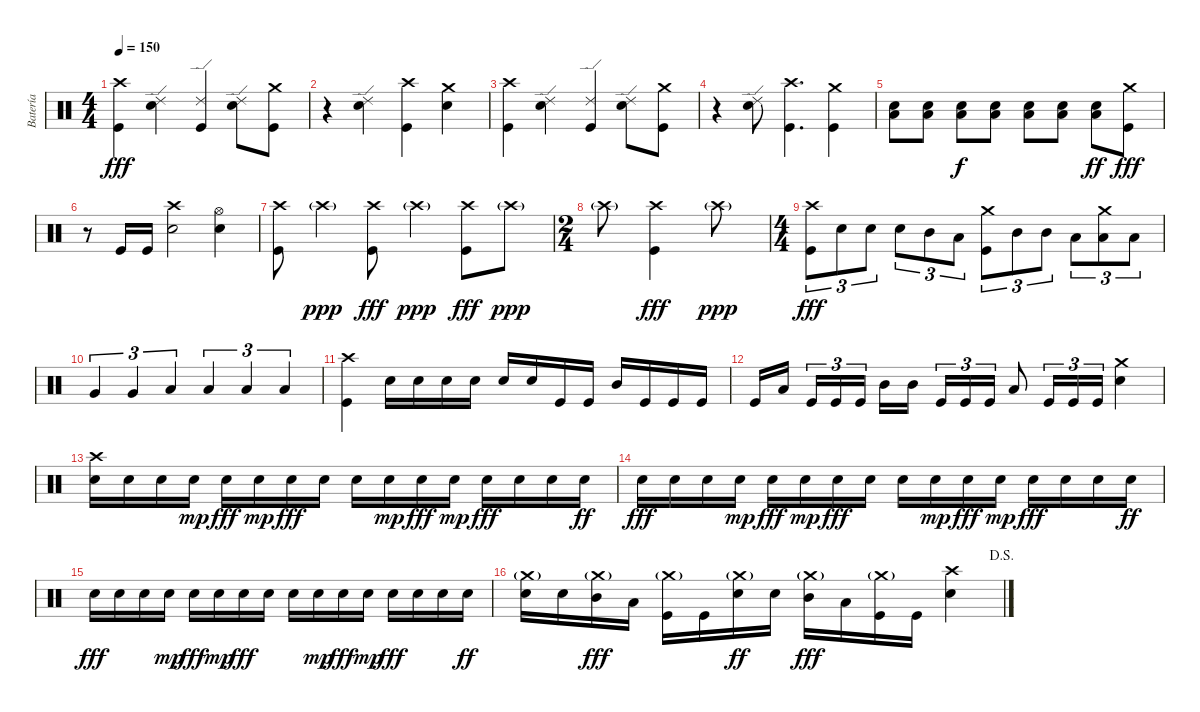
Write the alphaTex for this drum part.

\track ("Batería" "Batería") {instrument percussion}
\staff {score}
\articulation defaults
\ts (4 4)
\tempo 150
\clef neutral
\ks c
("Crash high (hit)" "Kick (hit)").4{dy fff} ("Ride (edge) 2" "Snare (hit) 2").4 ("Ride (edge) 2" "Kick (hit)").4 ("Ride (edge) 2" "Snare (hit) 2").8 ("Crash medium (hit)" "Kick (hit)").8 |
r.4 ("Ride (edge) 2" "Snare (hit) 2").4 ("Crash high (hit)" "Kick (hit)").4 ("Crash medium (hit)" "Snare (hit) 2").4 |
("Crash high (hit)" "Kick (hit)").4 ("Ride (edge) 2" "Snare (hit) 2").4 ("Ride (edge) 2" "Kick (hit)").4 ("Ride (edge) 2" "Snare (hit) 2").8 ("Crash medium (hit)" "Kick (hit)").8 |
r.4 ("Ride (edge) 2" "Snare (hit) 2").8 ("Crash high (hit)" "Kick (hit)").4{d} ("Crash medium (hit)" "Kick (hit)").4 |
("Low Floor Tom (hit)" "Snare (hit) 2").8 ("Low Floor Tom (hit)" "Snare (hit) 2").8 ("Low Floor Tom (hit)" "Snare (hit) 2").8{dy f} ("Low Floor Tom (hit)" "Snare (hit) 2").8 ("Low Floor Tom (hit)" "Snare (hit) 2").8 ("Low Floor Tom (hit)" "Snare (hit) 2").8 ("Low Floor Tom (hit)" "Snare (hit) 2").8{dy ff} ("Crash medium (hit)" "Kick (hit)").8{dy fff} |
r.8 "Kick (hit)".16 "Kick (hit)".16 ("Crash high (hit)" "Snare (hit) 2").2 ("Hi-Hat (open)" "Snare (hit) 2").4 |
("Crash high (hit)" "Kick (hit)").8 "Crash high (hit)"{g}.4{dy ppp} ("Crash high (hit)" "Kick (hit)").8{dy fff} "Crash high (hit)"{g}.4{dy ppp} ("Crash high (hit)" "Kick (hit)").8{dy fff} "Crash high (hit)"{g}.8{dy ppp} |
\ts (2 4)
"Crash high (hit)"{g}.8 ("Crash high (hit)" "Kick (hit)").4{dy fff} "Crash high (hit)"{g}.8{dy ppp} |
\ts (4 4)
("Crash high (hit)" "Kick (hit)").8{tu (3 2) dy fff} "Snare (hit) 2".8{tu (3 2)} "Snare (hit) 2".8{tu (3 2)} "Snare (hit) 2".8{tu (3 2)} "Mid Tom (hit)".8{tu (3 2)} "Low Tom (hit)".8{tu (3 2)} ("Crash medium (hit)" "Kick (hit)").8{tu (3 2)} "Mid Tom (hit)".8{tu (3 2)} "Mid Tom (hit)".8{tu (3 2)} "Low Tom (hit)".8{tu (3 2)} ("Crash medium (hit)" "Low Tom (hit)").8{tu (3 2)} "Low Tom (hit)".8{tu (3 2)} |
"Very Low Tom (hit)".4{tu (3 2)} "Very Low Tom (hit)".4{tu (3 2)} "Low Floor Tom (hit)".4{tu (3 2)} "Low Floor Tom (hit)".4{tu (3 2)} "Low Floor Tom (hit)".4{tu (3 2)} "Low Floor Tom (hit)".4{tu (3 2)} |
("Crash high (hit)" "Kick (hit)").4 "Snare (hit) 2".16 "Snare (hit) 2".16 "Snare (hit) 2".16 "Snare (hit) 2".16 "Snare (hit) 2".16 "Snare (hit) 2".16 "Kick (hit)".16 "Kick (hit)".16 "Mid Tom (hit)".16 "Kick (hit)".16 "Kick (hit)".16 "Kick (hit)".16 |
"Kick (hit)".16 "Low Tom (hit)".16{beam splitsecondary} "Kick (hit)".16{tu (3 2)} "Kick (hit)".16{tu (3 2)} "Kick (hit)".16{tu (3 2)} "Mid Tom (hit)".16 "Mid Tom (hit)".16{beam splitsecondary} "Kick (hit)".16{tu (3 2)} "Kick (hit)".16{tu (3 2)} "Kick (hit)".16{tu (3 2)} "Low Tom (hit)".8 "Kick (hit)".16{tu (3 2)} "Kick (hit)".16{tu (3 2)} "Kick (hit)".16{tu (3 2)} ("Crash medium (hit)" "Snare (hit) 2").4 |
("Crash high (hit)" "Snare (hit) 2").16 "Snare (hit) 2".16 "Snare (hit) 2".16 "Snare (hit) 2".16{dy mp} "Snare (hit) 2".16{dy fff} "Snare (hit) 2".16{dy mp} "Snare (hit) 2".16{dy fff} "Snare (hit) 2".16 "Snare (hit) 2".16 "Snare (hit) 2".16{dy mp} "Snare (hit) 2".16{dy fff} "Snare (hit) 2".16{dy mp} "Snare (hit) 2".16{dy fff} "Snare (hit) 2".16 "Snare (hit) 2".16 "Snare (hit) 2".16{dy ff} |
"Snare (hit) 2".16{dy fff} "Snare (hit) 2".16 "Snare (hit) 2".16 "Snare (hit) 2".16{dy mp} "Snare (hit) 2".16{dy fff} "Snare (hit) 2".16{dy mp} "Snare (hit) 2".16{dy fff} "Snare (hit) 2".16 "Snare (hit) 2".16 "Snare (hit) 2".16{dy mp} "Snare (hit) 2".16{dy fff} "Snare (hit) 2".16{dy mp} "Snare (hit) 2".16{dy fff} "Snare (hit) 2".16 "Snare (hit) 2".16 "Snare (hit) 2".16{dy ff} |
"Snare (hit) 2".16{dy fff} "Snare (hit) 2".16 "Snare (hit) 2".16 "Snare (hit) 2".16{dy mp} "Snare (hit) 2".16{dy fff} "Snare (hit) 2".16{dy mp} "Snare (hit) 2".16{dy fff} "Snare (hit) 2".16 "Snare (hit) 2".16 "Snare (hit) 2".16{dy mp} "Snare (hit) 2".16{dy fff} "Snare (hit) 2".16{dy mp} "Snare (hit) 2".16{dy fff} "Snare (hit) 2".16 "Snare (hit) 2".16 "Snare (hit) 2".16{dy ff} |
\jump dalsegno
("Crash medium (hit)"{g} "Snare (hit) 2").16 "Snare (hit) 2".16 ("Crash medium (hit)"{g} "Mid Tom (hit)").16{dy fff} "Low Tom (hit)".16 ("Crash medium (hit)"{g} "Kick (hit)").16 "Kick (hit)".16 ("Crash medium (hit)"{g} "Snare (hit) 2").16{dy ff} "Snare (hit) 2".16 ("Crash medium (hit)"{g} "Mid Tom (hit)").16{dy fff} "Low Tom (hit)".16 ("Crash medium (hit)"{g} "Kick (hit)").16 "Kick (hit)".16 ("Crash high (hit)" "Snare (hit) 2").4
